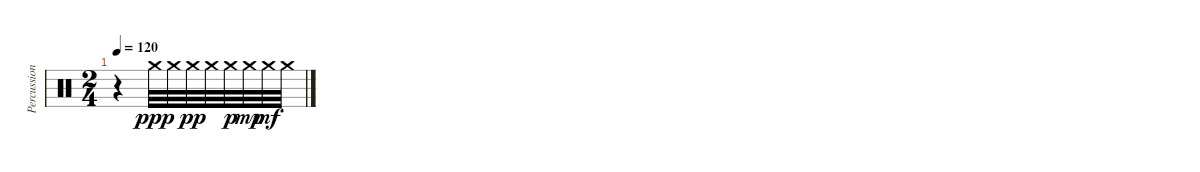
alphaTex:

\track ("Percussion" "Percussion") {instrument percussion}
\staff {score}
\articulation defaults
\ts (2 4)
\tempo 120
\clef neutral
\ks c
r.4{dy f} "Crash medium (hit)".32{dy ppp} "Crash medium (hit)".32 "Crash medium (hit)".32{dy pp} "Crash medium (hit)".32 "Crash medium (hit)".32{dy p} "Crash medium (hit)".32{dy mp} "Crash medium (hit)".32{dy mf} "Crash medium (hit)".32
